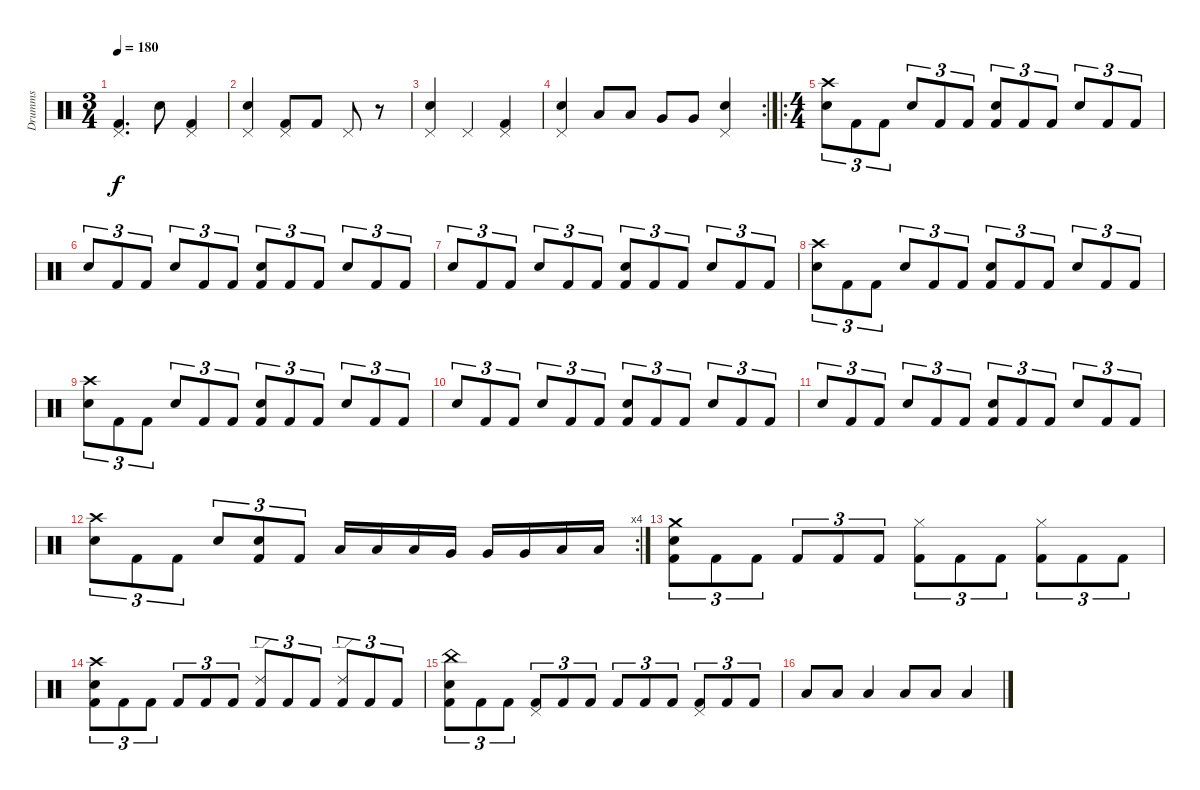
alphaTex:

\track ("Drumms" "Drumms") {instrument percussion}
\staff {score}
\articulation defaults
\ts (3 4)
\tempo 180
\clef neutral
\ks c
("Kick (hit) 2" "Pedal Hi-Hat (hit)").4{d dy f} "Snare (hit) 2".8 ("Kick (hit) 2" "Pedal Hi-Hat (hit)").4 |
("Snare (hit) 2" "Pedal Hi-Hat (hit)").4 ("Kick (hit) 2" "Pedal Hi-Hat (hit)").8 "Kick (hit) 2".8 "Pedal Hi-Hat (hit)".8 r.8 |
("Snare (hit) 2" "Pedal Hi-Hat (hit)").4 "Pedal Hi-Hat (hit)".4 ("Kick (hit) 2" "Pedal Hi-Hat (hit)").4 |
\rc 2
("Snare (hit) 2" "Pedal Hi-Hat (hit)").4 "Low Tom (hit)".8 "Low Tom (hit)".8 "Very Low Tom (hit)".8 "Very Low Tom (hit)".8 ("Snare (hit) 2" "Pedal Hi-Hat (hit)").4 |
\ro
\ts (4 4)
("Snare (hit) 2" "Crash high (hit)").8{tu (3 2)} "Kick (hit) 2".8{tu (3 2)} "Kick (hit) 2".8{tu (3 2)} "Snare (hit) 2".8{tu (3 2)} "Kick (hit) 2".8{tu (3 2)} "Kick (hit) 2".8{tu (3 2)} ("Kick (hit) 2" "Snare (hit) 2").8{tu (3 2)} "Kick (hit) 2".8{tu (3 2)} "Kick (hit) 2".8{tu (3 2)} "Snare (hit) 2".8{tu (3 2)} "Kick (hit) 2".8{tu (3 2)} "Kick (hit) 2".8{tu (3 2)} |
"Snare (hit) 2".8{tu (3 2)} "Kick (hit) 2".8{tu (3 2)} "Kick (hit) 2".8{tu (3 2)} "Snare (hit) 2".8{tu (3 2)} "Kick (hit) 2".8{tu (3 2)} "Kick (hit) 2".8{tu (3 2)} ("Kick (hit) 2" "Snare (hit) 2").8{tu (3 2)} "Kick (hit) 2".8{tu (3 2)} "Kick (hit) 2".8{tu (3 2)} "Snare (hit) 2".8{tu (3 2)} "Kick (hit) 2".8{tu (3 2)} "Kick (hit) 2".8{tu (3 2)} |
"Snare (hit) 2".8{tu (3 2)} "Kick (hit) 2".8{tu (3 2)} "Kick (hit) 2".8{tu (3 2)} "Snare (hit) 2".8{tu (3 2)} "Kick (hit) 2".8{tu (3 2)} "Kick (hit) 2".8{tu (3 2)} ("Kick (hit) 2" "Snare (hit) 2").8{tu (3 2)} "Kick (hit) 2".8{tu (3 2)} "Kick (hit) 2".8{tu (3 2)} "Snare (hit) 2".8{tu (3 2)} "Kick (hit) 2".8{tu (3 2)} "Kick (hit) 2".8{tu (3 2)} |
("Snare (hit) 2" "Crash high (hit)").8{tu (3 2)} "Kick (hit) 2".8{tu (3 2)} "Kick (hit) 2".8{tu (3 2)} "Snare (hit) 2".8{tu (3 2)} "Kick (hit) 2".8{tu (3 2)} "Kick (hit) 2".8{tu (3 2)} ("Kick (hit) 2" "Snare (hit) 2").8{tu (3 2)} "Kick (hit) 2".8{tu (3 2)} "Kick (hit) 2".8{tu (3 2)} "Snare (hit) 2".8{tu (3 2)} "Kick (hit) 2".8{tu (3 2)} "Kick (hit) 2".8{tu (3 2)} |
("Snare (hit) 2" "Crash high (hit)").8{tu (3 2)} "Kick (hit) 2".8{tu (3 2)} "Kick (hit) 2".8{tu (3 2)} "Snare (hit) 2".8{tu (3 2)} "Kick (hit) 2".8{tu (3 2)} "Kick (hit) 2".8{tu (3 2)} ("Kick (hit) 2" "Snare (hit) 2").8{tu (3 2)} "Kick (hit) 2".8{tu (3 2)} "Kick (hit) 2".8{tu (3 2)} "Snare (hit) 2".8{tu (3 2)} "Kick (hit) 2".8{tu (3 2)} "Kick (hit) 2".8{tu (3 2)} |
"Snare (hit) 2".8{tu (3 2)} "Kick (hit) 2".8{tu (3 2)} "Kick (hit) 2".8{tu (3 2)} "Snare (hit) 2".8{tu (3 2)} "Kick (hit) 2".8{tu (3 2)} "Kick (hit) 2".8{tu (3 2)} ("Kick (hit) 2" "Snare (hit) 2").8{tu (3 2)} "Kick (hit) 2".8{tu (3 2)} "Kick (hit) 2".8{tu (3 2)} "Snare (hit) 2".8{tu (3 2)} "Kick (hit) 2".8{tu (3 2)} "Kick (hit) 2".8{tu (3 2)} |
"Snare (hit) 2".8{tu (3 2)} "Kick (hit) 2".8{tu (3 2)} "Kick (hit) 2".8{tu (3 2)} "Snare (hit) 2".8{tu (3 2)} "Kick (hit) 2".8{tu (3 2)} "Kick (hit) 2".8{tu (3 2)} ("Kick (hit) 2" "Snare (hit) 2").8{tu (3 2)} "Kick (hit) 2".8{tu (3 2)} "Kick (hit) 2".8{tu (3 2)} "Snare (hit) 2".8{tu (3 2)} "Kick (hit) 2".8{tu (3 2)} "Kick (hit) 2".8{tu (3 2)} |
\rc 4
("Snare (hit) 2" "Crash high (hit)").8{tu (3 2)} "Kick (hit) 2".8{tu (3 2)} "Kick (hit) 2".8{tu (3 2)} "Snare (hit) 2".8{tu (3 2)} ("Kick (hit) 2" "Snare (hit) 2").8{tu (3 2)} "Kick (hit) 2".8{tu (3 2)} "Low Tom (hit)".16 "Low Tom (hit)".16 "Low Tom (hit)".16 "Very Low Tom (hit)".16 "Very Low Tom (hit)".16 "Very Low Tom (hit)".16 "Low Floor Tom (hit)".16 "Low Floor Tom (hit)".16 |
("Kick (hit) 2" "Snare (hit) 2" "Crash medium (hit)").8{tu (3 2)} "Kick (hit) 2".8{tu (3 2)} "Kick (hit) 2".8{tu (3 2)} "Kick (hit) 2".8{tu (3 2)} "Kick (hit) 2".8{tu (3 2)} "Kick (hit) 2".8{tu (3 2)} ("Kick (hit) 2" "Hi-Hat (closed)").8{tu (3 2)} "Kick (hit) 2".8{tu (3 2)} "Kick (hit) 2".8{tu (3 2)} ("Kick (hit) 2" "Hi-Hat (closed)").8{tu (3 2)} "Kick (hit) 2".8{tu (3 2)} "Kick (hit) 2".8{tu (3 2)} |
("Kick (hit) 2" "Snare (hit) 2" "Crash high (hit)").8{tu (3 2)} "Kick (hit) 2".8{tu (3 2)} "Kick (hit) 2".8{tu (3 2)} "Kick (hit) 2".8{tu (3 2)} "Kick (hit) 2".8{tu (3 2)} "Kick (hit) 2".8{tu (3 2)} ("Kick (hit) 2" "Ride (edge) 2").8{tu (3 2)} "Kick (hit) 2".8{tu (3 2)} "Kick (hit) 2".8{tu (3 2)} ("Kick (hit) 2" "Ride (edge) 2").8{tu (3 2)} "Kick (hit) 2".8{tu (3 2)} "Kick (hit) 2".8{tu (3 2)} |
("Kick (hit) 2" "Snare (hit) 2" "China (hit)").8{tu (3 2)} "Kick (hit) 2".8{tu (3 2)} "Kick (hit) 2".8{tu (3 2)} ("Kick (hit) 2" "Pedal Hi-Hat (hit)").8{tu (3 2)} "Kick (hit) 2".8{tu (3 2)} "Kick (hit) 2".8{tu (3 2)} "Kick (hit) 2".8{tu (3 2)} "Kick (hit) 2".8{tu (3 2)} "Kick (hit) 2".8{tu (3 2)} ("Kick (hit) 2" "Pedal Hi-Hat (hit)").8{tu (3 2)} "Kick (hit) 2".8{tu (3 2)} "Kick (hit) 2".8{tu (3 2)} |
"Low Floor Tom (hit)".8 "Low Floor Tom (hit)".8 "Low Floor Tom (hit)".4 "Low Floor Tom (hit)".8 "Low Floor Tom (hit)".8 "Low Floor Tom (hit)".4
